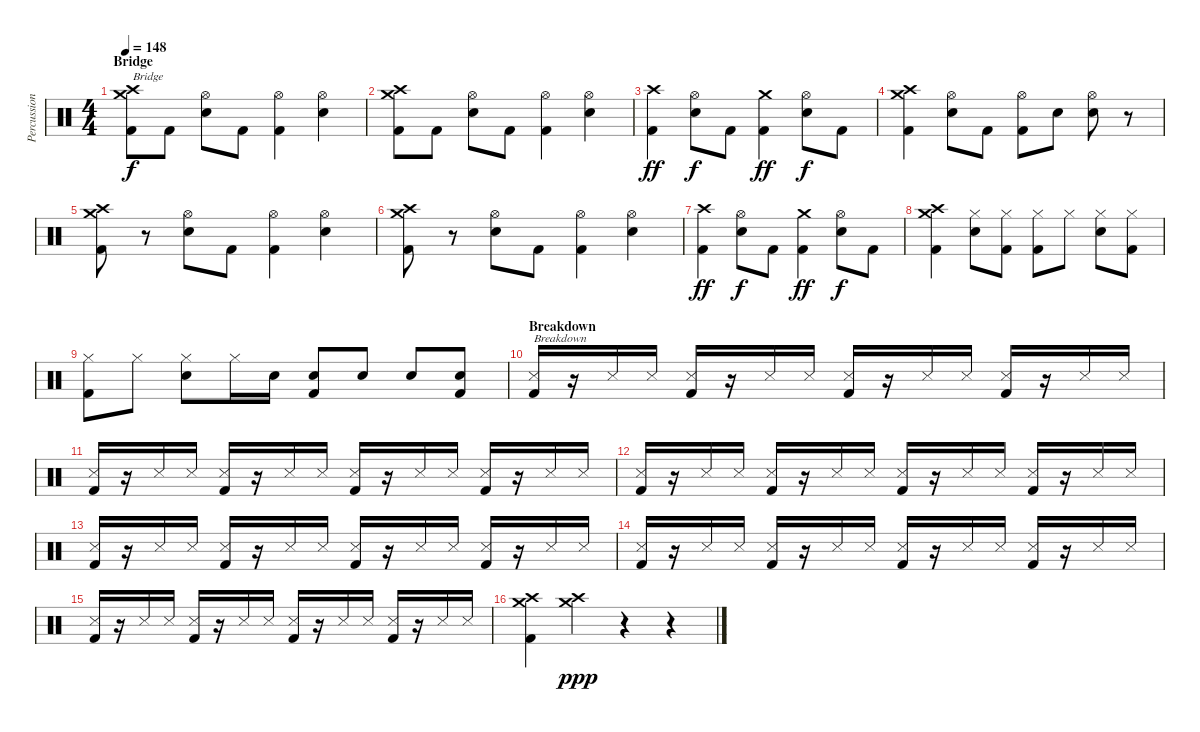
\track ("Percussion" "Percussion") {instrument percussion}
\staff {score}
\articulation defaults
\ts (4 4)
\section ("" "Bridge")
\tempo 148
\clef neutral
\ks c
("Crash medium (hit)" "Crash high (hit)" "Kick (hit) 2").8{txt "Bridge" dy f} "Kick (hit) 2".8 ("Hi-Hat (open)" "Electric Snare (hit)").8 "Kick (hit) 2".8 ("Hi-Hat (open)" "Kick (hit) 2").4 ("Hi-Hat (open)" "Electric Snare (hit)").4 |
("Crash medium (hit)" "Crash high (hit)" "Kick (hit) 2").8 "Kick (hit) 2".8 ("Hi-Hat (open)" "Electric Snare (hit)").8 "Kick (hit) 2".8 ("Hi-Hat (open)" "Kick (hit) 2").4 ("Hi-Hat (open)" "Electric Snare (hit)").4 |
("Crash high (hit)" "Kick (hit) 2").4{dy ff} ("Hi-Hat (open)" "Electric Snare (hit)").8{dy f} "Kick (hit) 2".8 ("Crash medium (hit)" "Kick (hit) 2").4{dy ff} ("Hi-Hat (open)" "Electric Snare (hit)").8{dy f} "Kick (hit) 2".8 |
("Crash medium (hit)" "Crash high (hit)" "Kick (hit) 2").4 ("Hi-Hat (open)" "Electric Snare (hit)").8 "Kick (hit) 2".8 ("Hi-Hat (open)" "Kick (hit) 2").8 "Electric Snare (hit)".8 ("Hi-Hat (open)" "Electric Snare (hit)").8 r.8 |
("Crash medium (hit)" "Crash high (hit)" "Kick (hit) 2").8 r.8 ("Hi-Hat (open)" "Electric Snare (hit)").8 "Kick (hit) 2".8 ("Hi-Hat (open)" "Kick (hit) 2").4 ("Hi-Hat (open)" "Electric Snare (hit)").4 |
("Crash medium (hit)" "Crash high (hit)" "Kick (hit) 2").8 r.8 ("Hi-Hat (open)" "Electric Snare (hit)").8 "Kick (hit) 2".8 ("Hi-Hat (open)" "Kick (hit) 2").4 ("Hi-Hat (open)" "Electric Snare (hit)").4 |
("Crash high (hit)" "Kick (hit) 2").4{dy ff} ("Hi-Hat (open)" "Electric Snare (hit)").8{dy f} "Kick (hit) 2".8 ("Crash medium (hit)" "Kick (hit) 2").4{dy ff} ("Hi-Hat (open)" "Electric Snare (hit)").8{dy f} "Kick (hit) 2".8 |
("Crash medium (hit)" "Crash high (hit)" "Kick (hit) 2").4 ("Hi-Hat (closed)" "Electric Snare (hit)").8 ("Hi-Hat (closed)" "Kick (hit) 2").8 ("Hi-Hat (closed)" "Kick (hit) 2").8 "Hi-Hat (closed)".8 ("Hi-Hat (closed)" "Electric Snare (hit)").8 ("Hi-Hat (closed)" "Kick (hit) 2").8 |
("Hi-Hat (closed)" "Kick (hit) 2").8 "Hi-Hat (closed)".8 ("Hi-Hat (closed)" "Electric Snare (hit)").8 "Hi-Hat (closed)".16 "Electric Snare (hit)".16 ("Electric Snare (hit)" "Kick (hit) 2").8 "Electric Snare (hit)".8 "Electric Snare (hit)".8 ("Electric Snare (hit)" "Kick (hit) 2").8 |
\section ("" "Breakdown")
("Snare (side stick) 3" "Kick (hit) 2").16{txt "Breakdown"} r.16 "Snare (side stick) 3".16 "Snare (side stick) 3".16 ("Snare (side stick) 3" "Kick (hit) 2").16 r.16 "Snare (side stick) 3".16 "Snare (side stick) 3".16 ("Snare (side stick) 3" "Kick (hit) 2").16 r.16 "Snare (side stick) 3".16 "Snare (side stick) 3".16 ("Snare (side stick) 3" "Kick (hit) 2").16 r.16 "Snare (side stick) 3".16 "Snare (side stick) 3".16 |
("Snare (side stick) 3" "Kick (hit) 2").16 r.16 "Snare (side stick) 3".16 "Snare (side stick) 3".16 ("Snare (side stick) 3" "Kick (hit) 2").16 r.16 "Snare (side stick) 3".16 "Snare (side stick) 3".16 ("Snare (side stick) 3" "Kick (hit) 2").16 r.16 "Snare (side stick) 3".16 "Snare (side stick) 3".16 ("Snare (side stick) 3" "Kick (hit) 2").16 r.16 "Snare (side stick) 3".16 "Snare (side stick) 3".16 |
("Snare (side stick) 3" "Kick (hit) 2").16 r.16 "Snare (side stick) 3".16 "Snare (side stick) 3".16 ("Snare (side stick) 3" "Kick (hit) 2").16 r.16 "Snare (side stick) 3".16 "Snare (side stick) 3".16 ("Snare (side stick) 3" "Kick (hit) 2").16 r.16 "Snare (side stick) 3".16 "Snare (side stick) 3".16 ("Snare (side stick) 3" "Kick (hit) 2").16 r.16 "Snare (side stick) 3".16 "Snare (side stick) 3".16 |
("Snare (side stick) 3" "Kick (hit) 2").16 r.16 "Snare (side stick) 3".16 "Snare (side stick) 3".16 ("Snare (side stick) 3" "Kick (hit) 2").16 r.16 "Snare (side stick) 3".16 "Snare (side stick) 3".16 ("Snare (side stick) 3" "Kick (hit) 2").16 r.16 "Snare (side stick) 3".16 "Snare (side stick) 3".16 ("Snare (side stick) 3" "Kick (hit) 2").16 r.16 "Snare (side stick) 3".16 "Snare (side stick) 3".16 |
("Snare (side stick) 3" "Kick (hit) 2").16 r.16 "Snare (side stick) 3".16 "Snare (side stick) 3".16 ("Snare (side stick) 3" "Kick (hit) 2").16 r.16 "Snare (side stick) 3".16 "Snare (side stick) 3".16 ("Snare (side stick) 3" "Kick (hit) 2").16 r.16 "Snare (side stick) 3".16 "Snare (side stick) 3".16 ("Snare (side stick) 3" "Kick (hit) 2").16 r.16 "Snare (side stick) 3".16 "Snare (side stick) 3".16 |
("Snare (side stick) 3" "Kick (hit) 2").16 r.16 "Snare (side stick) 3".16 "Snare (side stick) 3".16 ("Snare (side stick) 3" "Kick (hit) 2").16 r.16 "Snare (side stick) 3".16 "Snare (side stick) 3".16 ("Snare (side stick) 3" "Kick (hit) 2").16 r.16 "Snare (side stick) 3".16 "Snare (side stick) 3".16 ("Snare (side stick) 3" "Kick (hit) 2").16 r.16 "Snare (side stick) 3".16 "Snare (side stick) 3".16 |
("Crash medium (hit)" "Crash high (hit)" "Kick (hit) 2").4 ("Crash medium (hit)" "Crash high (hit)").4{dy ppp} r.4 r.4
